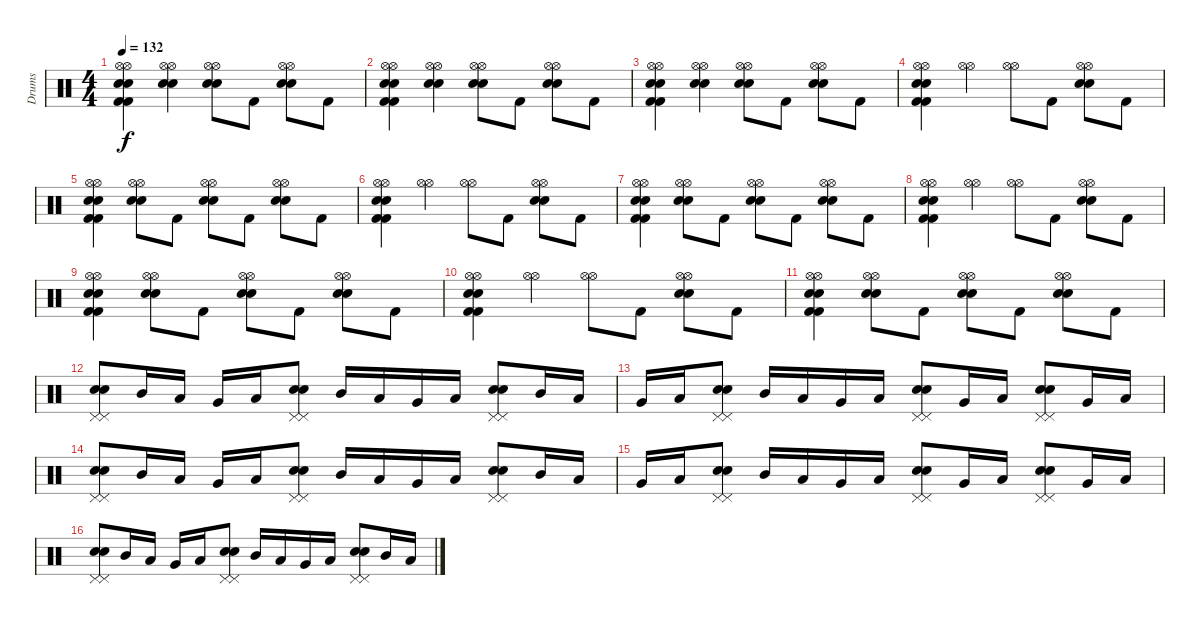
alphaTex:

\track ("Drums" "Drums") {instrument percussion}
\staff {score}
\articulation defaults
\ts (4 4)
\tempo 132
\clef neutral
\ks c
("Hi-Hat (open)" "Hi-Hat (open)" "Electric Snare (hit)" "Electric Snare (hit)" "Kick (hit) 2" "Kick (hit) 2").4{dy f} ("Hi-Hat (open)" "Hi-Hat (open)" "Electric Snare (hit)" "Electric Snare (hit)").4 ("Hi-Hat (open)" "Hi-Hat (open)" "Electric Snare (hit)" "Electric Snare (hit)").8 "Kick (hit) 2".8 ("Hi-Hat (open)" "Hi-Hat (open)" "Electric Snare (hit)" "Electric Snare (hit)").8 "Kick (hit) 2".8 |
("Hi-Hat (open)" "Hi-Hat (open)" "Electric Snare (hit)" "Electric Snare (hit)" "Kick (hit) 2" "Kick (hit) 2").4 ("Hi-Hat (open)" "Hi-Hat (open)" "Electric Snare (hit)" "Electric Snare (hit)").4 ("Hi-Hat (open)" "Hi-Hat (open)" "Electric Snare (hit)" "Electric Snare (hit)").8 "Kick (hit) 2".8 ("Hi-Hat (open)" "Hi-Hat (open)" "Electric Snare (hit)" "Electric Snare (hit)").8 "Kick (hit) 2".8 |
("Hi-Hat (open)" "Hi-Hat (open)" "Electric Snare (hit)" "Electric Snare (hit)" "Kick (hit) 2" "Kick (hit) 2").4 ("Hi-Hat (open)" "Hi-Hat (open)" "Electric Snare (hit)" "Electric Snare (hit)").4 ("Hi-Hat (open)" "Hi-Hat (open)" "Electric Snare (hit)" "Electric Snare (hit)").8 "Kick (hit) 2".8 ("Hi-Hat (open)" "Hi-Hat (open)" "Electric Snare (hit)" "Electric Snare (hit)").8 "Kick (hit) 2".8 |
("Hi-Hat (open)" "Hi-Hat (open)" "Electric Snare (hit)" "Electric Snare (hit)" "Kick (hit) 2" "Kick (hit) 2").4 ("Hi-Hat (open)" "Hi-Hat (open)").4 ("Hi-Hat (open)" "Hi-Hat (open)").8 "Kick (hit) 2".8 ("Hi-Hat (open)" "Hi-Hat (open)" "Electric Snare (hit)" "Electric Snare (hit)").8 "Kick (hit) 2".8 |
("Hi-Hat (open)" "Hi-Hat (open)" "Electric Snare (hit)" "Electric Snare (hit)" "Kick (hit) 2" "Kick (hit) 2").4 ("Hi-Hat (open)" "Hi-Hat (open)" "Electric Snare (hit)" "Electric Snare (hit)").8 "Kick (hit) 2".8 ("Hi-Hat (open)" "Hi-Hat (open)" "Electric Snare (hit)" "Electric Snare (hit)").8 "Kick (hit) 2".8 ("Hi-Hat (open)" "Hi-Hat (open)" "Electric Snare (hit)" "Electric Snare (hit)").8 "Kick (hit) 2".8 |
("Hi-Hat (open)" "Hi-Hat (open)" "Electric Snare (hit)" "Electric Snare (hit)" "Kick (hit) 2" "Kick (hit) 2").4 ("Hi-Hat (open)" "Hi-Hat (open)").4 ("Hi-Hat (open)" "Hi-Hat (open)").8 "Kick (hit) 2".8 ("Hi-Hat (open)" "Hi-Hat (open)" "Electric Snare (hit)" "Electric Snare (hit)").8 "Kick (hit) 2".8 |
("Hi-Hat (open)" "Hi-Hat (open)" "Electric Snare (hit)" "Electric Snare (hit)" "Kick (hit) 2" "Kick (hit) 2").4 ("Hi-Hat (open)" "Hi-Hat (open)" "Electric Snare (hit)" "Electric Snare (hit)").8 "Kick (hit) 2".8 ("Hi-Hat (open)" "Hi-Hat (open)" "Electric Snare (hit)" "Electric Snare (hit)").8 "Kick (hit) 2".8 ("Hi-Hat (open)" "Hi-Hat (open)" "Electric Snare (hit)" "Electric Snare (hit)").8 "Kick (hit) 2".8 |
("Hi-Hat (open)" "Hi-Hat (open)" "Electric Snare (hit)" "Electric Snare (hit)" "Kick (hit) 2" "Kick (hit) 2").4 ("Hi-Hat (open)" "Hi-Hat (open)").4 ("Hi-Hat (open)" "Hi-Hat (open)").8 "Kick (hit) 2".8 ("Hi-Hat (open)" "Hi-Hat (open)" "Electric Snare (hit)" "Electric Snare (hit)").8 "Kick (hit) 2".8 |
("Hi-Hat (open)" "Hi-Hat (open)" "Electric Snare (hit)" "Electric Snare (hit)" "Kick (hit) 2" "Kick (hit) 2").4 ("Hi-Hat (open)" "Hi-Hat (open)" "Electric Snare (hit)" "Electric Snare (hit)").8 "Kick (hit) 2".8 ("Hi-Hat (open)" "Hi-Hat (open)" "Electric Snare (hit)" "Electric Snare (hit)").8 "Kick (hit) 2".8 ("Hi-Hat (open)" "Hi-Hat (open)" "Electric Snare (hit)" "Electric Snare (hit)").8 "Kick (hit) 2".8 |
("Hi-Hat (open)" "Hi-Hat (open)" "Electric Snare (hit)" "Electric Snare (hit)" "Kick (hit) 2" "Kick (hit) 2").4 ("Hi-Hat (open)" "Hi-Hat (open)").4 ("Hi-Hat (open)" "Hi-Hat (open)").8 "Kick (hit) 2".8 ("Hi-Hat (open)" "Hi-Hat (open)" "Electric Snare (hit)" "Electric Snare (hit)").8 "Kick (hit) 2".8 |
("Hi-Hat (open)" "Hi-Hat (open)" "Electric Snare (hit)" "Electric Snare (hit)" "Kick (hit) 2" "Kick (hit) 2").4 ("Hi-Hat (open)" "Hi-Hat (open)" "Electric Snare (hit)" "Electric Snare (hit)").8 "Kick (hit) 2".8 ("Hi-Hat (open)" "Hi-Hat (open)" "Electric Snare (hit)" "Electric Snare (hit)").8 "Kick (hit) 2".8 ("Hi-Hat (open)" "Hi-Hat (open)" "Electric Snare (hit)" "Electric Snare (hit)").8 "Kick (hit) 2".8 |
("Pedal Hi-Hat (hit)" "Pedal Hi-Hat (hit)" "Electric Snare (hit)" "Electric Snare (hit)").8 "Mid Tom (hit)".16 "Low Tom (hit)".16 "Very Low Tom (hit)".16 "Low Floor Tom (hit)".16 ("Pedal Hi-Hat (hit)" "Pedal Hi-Hat (hit)" "Electric Snare (hit)" "Electric Snare (hit)").8 "Mid Tom (hit)".16 "Low Tom (hit)".16 "Very Low Tom (hit)".16 "Low Floor Tom (hit)".16 ("Pedal Hi-Hat (hit)" "Pedal Hi-Hat (hit)" "Electric Snare (hit)" "Electric Snare (hit)").8 "Mid Tom (hit)".16 "Low Tom (hit)".16 |
"Very Low Tom (hit)".16 "Low Floor Tom (hit)".16 ("Pedal Hi-Hat (hit)" "Pedal Hi-Hat (hit)" "Electric Snare (hit)" "Electric Snare (hit)").8 "Mid Tom (hit)".16 "Low Tom (hit)".16 "Very Low Tom (hit)".16 "Low Floor Tom (hit)".16 ("Pedal Hi-Hat (hit)" "Pedal Hi-Hat (hit)" "Electric Snare (hit)" "Electric Snare (hit)").8 "Very Low Tom (hit)".16 "Low Floor Tom (hit)".16 ("Pedal Hi-Hat (hit)" "Pedal Hi-Hat (hit)" "Electric Snare (hit)" "Electric Snare (hit)").8 "Very Low Tom (hit)".16 "Low Floor Tom (hit)".16 |
("Pedal Hi-Hat (hit)" "Pedal Hi-Hat (hit)" "Electric Snare (hit)" "Electric Snare (hit)").8 "Mid Tom (hit)".16 "Low Tom (hit)".16 "Very Low Tom (hit)".16 "Low Floor Tom (hit)".16 ("Pedal Hi-Hat (hit)" "Pedal Hi-Hat (hit)" "Electric Snare (hit)" "Electric Snare (hit)").8 "Mid Tom (hit)".16 "Low Tom (hit)".16 "Very Low Tom (hit)".16 "Low Floor Tom (hit)".16 ("Pedal Hi-Hat (hit)" "Pedal Hi-Hat (hit)" "Electric Snare (hit)" "Electric Snare (hit)").8 "Mid Tom (hit)".16 "Low Tom (hit)".16 |
"Very Low Tom (hit)".16 "Low Floor Tom (hit)".16 ("Pedal Hi-Hat (hit)" "Pedal Hi-Hat (hit)" "Electric Snare (hit)" "Electric Snare (hit)").8 "Mid Tom (hit)".16 "Low Tom (hit)".16 "Very Low Tom (hit)".16 "Low Floor Tom (hit)".16 ("Pedal Hi-Hat (hit)" "Pedal Hi-Hat (hit)" "Electric Snare (hit)" "Electric Snare (hit)").8 "Very Low Tom (hit)".16 "Low Floor Tom (hit)".16 ("Pedal Hi-Hat (hit)" "Pedal Hi-Hat (hit)" "Electric Snare (hit)" "Electric Snare (hit)").8 "Very Low Tom (hit)".16 "Low Floor Tom (hit)".16 |
("Pedal Hi-Hat (hit)" "Pedal Hi-Hat (hit)" "Electric Snare (hit)" "Electric Snare (hit)").8 "Mid Tom (hit)".16 "Low Tom (hit)".16 "Very Low Tom (hit)".16 "Low Floor Tom (hit)".16 ("Pedal Hi-Hat (hit)" "Pedal Hi-Hat (hit)" "Electric Snare (hit)" "Electric Snare (hit)").8 "Mid Tom (hit)".16 "Low Tom (hit)".16 "Very Low Tom (hit)".16 "Low Floor Tom (hit)".16 ("Pedal Hi-Hat (hit)" "Pedal Hi-Hat (hit)" "Electric Snare (hit)" "Electric Snare (hit)").8 "Mid Tom (hit)".16 "Low Tom (hit)".16
